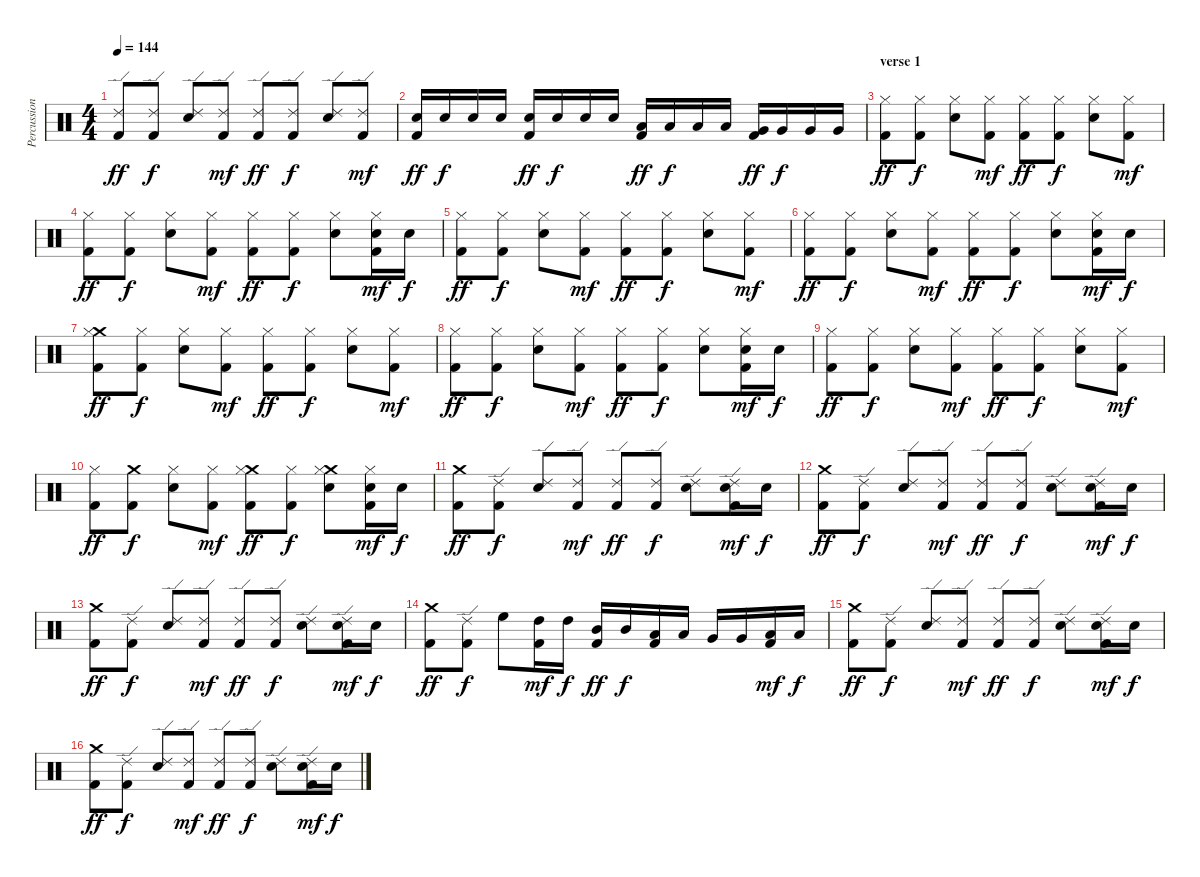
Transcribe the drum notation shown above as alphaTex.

\track ("Percussion" "Percussion") {instrument percussion}
\staff {score}
\articulation defaults
\ts (4 4)
\tempo 144
\clef neutral
\ks c
("Ride (edge) 2" "Kick (hit) 2").8{dy ff} ("Ride (edge) 2" "Kick (hit) 2").8{dy f} ("Ride (edge) 2" "Snare (hit) 2").8 ("Ride (edge) 2" "Kick (hit) 2").8{dy mf} ("Ride (edge) 2" "Kick (hit) 2").8{dy ff} ("Ride (edge) 2" "Kick (hit) 2").8{dy f} ("Ride (edge) 2" "Snare (hit) 2").8 ("Ride (edge) 2" "Kick (hit) 2").8{dy mf} |
("Snare (hit) 2" "Kick (hit) 2").16{dy ff} "Snare (hit) 2".16{dy f} "Snare (hit) 2".16 "Snare (hit) 2".16 ("Snare (hit) 2" "Kick (hit) 2").16{dy ff} "Snare (hit) 2".16{dy f} "Snare (hit) 2".16 "Snare (hit) 2".16 ("Low Tom (hit)" "Kick (hit) 2").16{dy ff} "Low Tom (hit)".16{dy f} "Low Tom (hit)".16 "Low Tom (hit)".16 ("Very Low Tom (hit)" "Kick (hit) 2").16{dy ff} "Very Low Tom (hit)".16{dy f} "Very Low Tom (hit)".16 "Very Low Tom (hit)".16 |
\section ("" "verse 1")
("Hi-Hat (closed)" "Kick (hit) 2").8{dy ff} ("Hi-Hat (closed)" "Kick (hit) 2").8{dy f} ("Hi-Hat (closed)" "Snare (hit) 2").8 ("Hi-Hat (closed)" "Kick (hit) 2").8{dy mf} ("Hi-Hat (closed)" "Kick (hit) 2").8{dy ff} ("Hi-Hat (closed)" "Kick (hit) 2").8{dy f} ("Hi-Hat (closed)" "Snare (hit) 2").8 ("Hi-Hat (closed)" "Kick (hit) 2").8{dy mf} |
("Hi-Hat (closed)" "Kick (hit) 2").8{dy ff} ("Hi-Hat (closed)" "Kick (hit) 2").8{dy f} ("Hi-Hat (closed)" "Snare (hit) 2").8 ("Hi-Hat (closed)" "Kick (hit) 2").8{dy mf} ("Hi-Hat (closed)" "Kick (hit) 2").8{dy ff} ("Hi-Hat (closed)" "Kick (hit) 2").8{dy f} ("Hi-Hat (closed)" "Snare (hit) 2").8 ("Hi-Hat (closed)" "Snare (hit) 2" "Kick (hit) 2").16{dy mf} "Snare (hit) 2".16{dy f} |
("Hi-Hat (closed)" "Kick (hit) 2").8{dy ff} ("Hi-Hat (closed)" "Kick (hit) 2").8{dy f} ("Hi-Hat (closed)" "Snare (hit) 2").8 ("Hi-Hat (closed)" "Kick (hit) 2").8{dy mf} ("Hi-Hat (closed)" "Kick (hit) 2").8{dy ff} ("Hi-Hat (closed)" "Kick (hit) 2").8{dy f} ("Hi-Hat (closed)" "Snare (hit) 2").8 ("Hi-Hat (closed)" "Kick (hit) 2").8{dy mf} |
("Hi-Hat (closed)" "Kick (hit) 2").8{dy ff} ("Hi-Hat (closed)" "Kick (hit) 2").8{dy f} ("Hi-Hat (closed)" "Snare (hit) 2").8 ("Hi-Hat (closed)" "Kick (hit) 2").8{dy mf} ("Hi-Hat (closed)" "Kick (hit) 2").8{dy ff} ("Hi-Hat (closed)" "Kick (hit) 2").8{dy f} ("Hi-Hat (closed)" "Snare (hit) 2").8 ("Hi-Hat (closed)" "Snare (hit) 2" "Kick (hit) 2").16{dy mf} "Snare (hit) 2".16{dy f} |
("Crash medium (hit)" "Hi-Hat (closed)" "Kick (hit) 2").8{dy ff} ("Hi-Hat (closed)" "Kick (hit) 2").8{dy f} ("Hi-Hat (closed)" "Snare (hit) 2").8 ("Hi-Hat (closed)" "Kick (hit) 2").8{dy mf} ("Hi-Hat (closed)" "Kick (hit) 2").8{dy ff} ("Hi-Hat (closed)" "Kick (hit) 2").8{dy f} ("Hi-Hat (closed)" "Snare (hit) 2").8 ("Hi-Hat (closed)" "Kick (hit) 2").8{dy mf} |
("Hi-Hat (closed)" "Kick (hit) 2").8{dy ff} ("Hi-Hat (closed)" "Kick (hit) 2").8{dy f} ("Hi-Hat (closed)" "Snare (hit) 2").8 ("Hi-Hat (closed)" "Kick (hit) 2").8{dy mf} ("Hi-Hat (closed)" "Kick (hit) 2").8{dy ff} ("Hi-Hat (closed)" "Kick (hit) 2").8{dy f} ("Hi-Hat (closed)" "Snare (hit) 2").8 ("Hi-Hat (closed)" "Snare (hit) 2" "Kick (hit) 2").16{dy mf} "Snare (hit) 2".16{dy f} |
("Hi-Hat (closed)" "Kick (hit) 2").8{dy ff} ("Hi-Hat (closed)" "Kick (hit) 2").8{dy f} ("Hi-Hat (closed)" "Snare (hit) 2").8 ("Hi-Hat (closed)" "Kick (hit) 2").8{dy mf} ("Hi-Hat (closed)" "Kick (hit) 2").8{dy ff} ("Hi-Hat (closed)" "Kick (hit) 2").8{dy f} ("Hi-Hat (closed)" "Snare (hit) 2").8 ("Hi-Hat (closed)" "Kick (hit) 2").8{dy mf} |
("Hi-Hat (closed)" "Kick (hit) 2").8{dy ff} ("Crash medium (hit)" "Kick (hit) 2").8{dy f} ("Hi-Hat (closed)" "Snare (hit) 2").8 ("Hi-Hat (closed)" "Kick (hit) 2").8{dy mf} ("Crash medium (hit)" "Hi-Hat (closed)" "Kick (hit) 2").8{dy ff} ("Hi-Hat (closed)" "Kick (hit) 2").8{dy f} ("Crash medium (hit)" "Hi-Hat (closed)" "Snare (hit) 2").8 ("Hi-Hat (closed)" "Snare (hit) 2" "Kick (hit) 2").16{dy mf} "Snare (hit) 2".16{dy f} |
("Crash medium (hit)" "Kick (hit) 2").8{dy ff} ("Ride (edge) 2" "Kick (hit) 2").8{dy f} ("Ride (edge) 2" "Snare (hit) 2").8 ("Ride (edge) 2" "Kick (hit) 2").8{dy mf} ("Ride (edge) 2" "Kick (hit) 2").8{dy ff} ("Ride (edge) 2" "Kick (hit) 2").8{dy f} ("Ride (edge) 2" "Snare (hit) 2").8 ("Ride (edge) 2" "Snare (hit) 2" "Kick (hit) 2").16{dy mf} "Snare (hit) 2".16{dy f} |
("Crash medium (hit)" "Kick (hit) 2").8{dy ff} ("Ride (edge) 2" "Kick (hit) 2").8{dy f} ("Ride (edge) 2" "Snare (hit) 2").8 ("Ride (edge) 2" "Kick (hit) 2").8{dy mf} ("Ride (edge) 2" "Kick (hit) 2").8{dy ff} ("Ride (edge) 2" "Kick (hit) 2").8{dy f} ("Ride (edge) 2" "Snare (hit) 2").8 ("Ride (edge) 2" "Snare (hit) 2" "Kick (hit) 2").16{dy mf} "Snare (hit) 2".16{dy f} |
("Crash medium (hit)" "Kick (hit) 2").8{dy ff} ("Ride (edge) 2" "Kick (hit) 2").8{dy f} ("Ride (edge) 2" "Snare (hit) 2").8 ("Ride (edge) 2" "Kick (hit) 2").8{dy mf} ("Ride (edge) 2" "Kick (hit) 2").8{dy ff} ("Ride (edge) 2" "Kick (hit) 2").8{dy f} ("Ride (edge) 2" "Snare (hit) 2").8 ("Ride (edge) 2" "Snare (hit) 2" "Kick (hit) 2").16{dy mf} "Snare (hit) 2".16{dy f} |
("Crash medium (hit)" "Kick (hit) 2").8{dy ff} ("Ride (edge) 2" "Kick (hit) 2").8{dy f} "High Floor Tom (hit)".8 ("High Tom (hit)" "Kick (hit) 2").16{dy mf} "High Tom (hit)".16{dy f} ("Mid Tom (hit)" "Kick (hit) 2").16{dy ff} "Mid Tom (hit)".16{dy f} ("Low Tom (hit)" "Kick (hit) 2").16 "Low Tom (hit)".16 "Very Low Tom (hit)".16 "Very Low Tom (hit)".16 ("Low Floor Tom (hit)" "Kick (hit) 2").16{dy mf} "Low Floor Tom (hit)".16{dy f} |
("Crash medium (hit)" "Kick (hit) 2").8{dy ff} ("Ride (edge) 2" "Kick (hit) 2").8{dy f} ("Ride (edge) 2" "Snare (hit) 2").8 ("Ride (edge) 2" "Kick (hit) 2").8{dy mf} ("Ride (edge) 2" "Kick (hit) 2").8{dy ff} ("Ride (edge) 2" "Kick (hit) 2").8{dy f} ("Ride (edge) 2" "Snare (hit) 2").8 ("Ride (edge) 2" "Snare (hit) 2" "Kick (hit) 2").16{dy mf} "Snare (hit) 2".16{dy f} |
("Crash medium (hit)" "Kick (hit) 2").8{dy ff} ("Ride (edge) 2" "Kick (hit) 2").8{dy f} ("Ride (edge) 2" "Snare (hit) 2").8 ("Ride (edge) 2" "Kick (hit) 2").8{dy mf} ("Ride (edge) 2" "Kick (hit) 2").8{dy ff} ("Ride (edge) 2" "Kick (hit) 2").8{dy f} ("Ride (edge) 2" "Snare (hit) 2").8 ("Ride (edge) 2" "Snare (hit) 2" "Kick (hit) 2").16{dy mf} "Snare (hit) 2".16{dy f}
